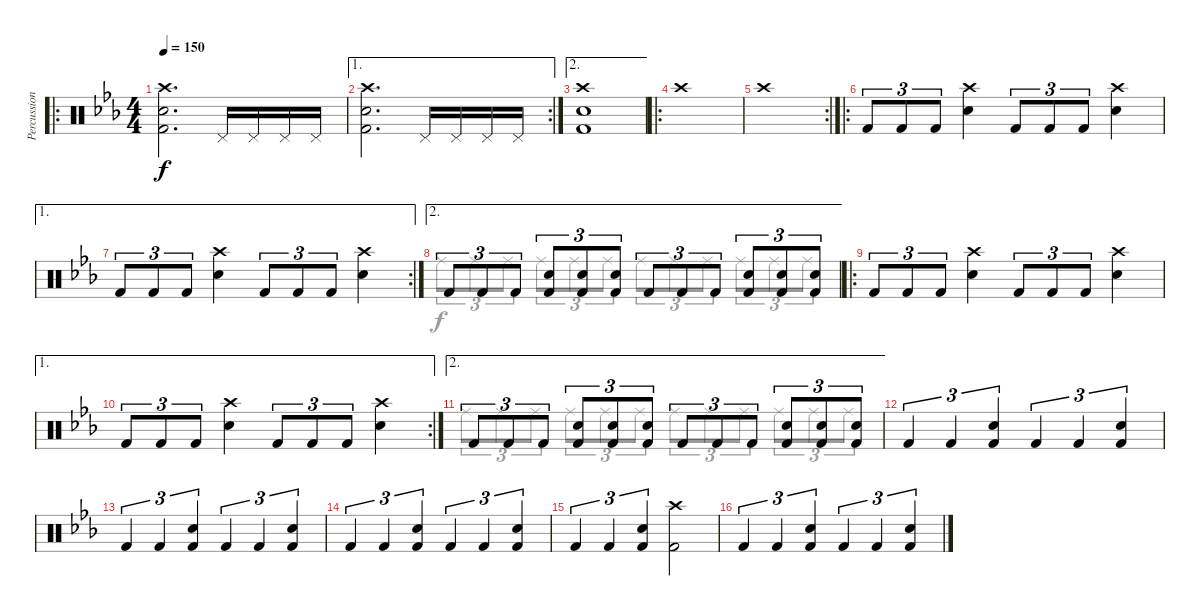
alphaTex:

\track ("Percussion" "Percussion") {instrument percussion}
\staff {score}
\articulation defaults
\voice
\ro
\ts (4 4)
\tempo 150
\clef neutral
\ks cminor
("Crash high (hit)" "Snare (hit) 2" "Kick (hit) 2").2{d dy f} "Pedal Hi-Hat (hit)".16 "Pedal Hi-Hat (hit)".16 "Pedal Hi-Hat (hit)".16 "Pedal Hi-Hat (hit)".16 |
\ae 1
\rc 2
("Crash high (hit)" "Snare (hit) 2" "Kick (hit) 2").2{d} "Pedal Hi-Hat (hit)".16 "Pedal Hi-Hat (hit)".16 "Pedal Hi-Hat (hit)".16 "Pedal Hi-Hat (hit)".16 |
\ae 2
("Crash high (hit)" "Snare (hit) 2" "Kick (hit) 2").1 |
\ro "Crash high (hit)".1
|
\rc 2 "Crash high (hit)".1
|
\ro "Kick (hit) 2".8{tu (3 2)} "Kick (hit) 2".8{tu (3 2)} "Kick (hit) 2".8{tu (3 2)}
("Crash high (hit)" "Snare (hit) 2").4 "Kick (hit) 2".8{tu (3 2)} "Kick (hit) 2".8{tu (3 2)} "Kick (hit) 2".8{tu (3 2)} ("Crash high (hit)" "Snare (hit) 2").4 |
\ae 1
\rc 2 "Kick (hit) 2".8{tu (3 2)} "Kick (hit) 2".8{tu (3 2)} "Kick (hit) 2".8{tu (3 2)}
("Crash high (hit)" "Snare (hit) 2").4 "Kick (hit) 2".8{tu (3 2)} "Kick (hit) 2".8{tu (3 2)} "Kick (hit) 2".8{tu (3 2)} ("Crash high (hit)" "Snare (hit) 2").4 |
\ae 2 "Kick (hit) 2".8{tu (3 2)} "Kick (hit) 2".8{tu (3 2)} "Kick (hit) 2".8{tu (3 2)}
("Snare (hit) 2" "Kick (hit) 2").8{tu (3 2)} ("Snare (hit) 2" "Kick (hit) 2").8{tu (3 2)} ("Snare (hit) 2" "Kick (hit) 2").8{tu (3 2)} "Kick (hit) 2".8{tu (3 2)} "Kick (hit) 2".8{tu (3 2)} "Kick (hit) 2".8{tu (3 2)} ("Snare (hit) 2" "Kick (hit) 2").8{tu (3 2)} ("Snare (hit) 2" "Kick (hit) 2").8{tu (3 2)} ("Snare (hit) 2" "Kick (hit) 2").8{tu (3 2)} |
\ro "Kick (hit) 2".8{tu (3 2)} "Kick (hit) 2".8{tu (3 2)} "Kick (hit) 2".8{tu (3 2)}
("Crash high (hit)" "Snare (hit) 2").4 "Kick (hit) 2".8{tu (3 2)} "Kick (hit) 2".8{tu (3 2)} "Kick (hit) 2".8{tu (3 2)} ("Crash high (hit)" "Snare (hit) 2").4 |
\ae 1
\rc 2 "Kick (hit) 2".8{tu (3 2)} "Kick (hit) 2".8{tu (3 2)} "Kick (hit) 2".8{tu (3 2)}
("Crash high (hit)" "Snare (hit) 2").4 "Kick (hit) 2".8{tu (3 2)} "Kick (hit) 2".8{tu (3 2)} "Kick (hit) 2".8{tu (3 2)} ("Crash high (hit)" "Snare (hit) 2").4 |
\ae 2 "Kick (hit) 2".8{tu (3 2)} "Kick (hit) 2".8{tu (3 2)} "Kick (hit) 2".8{tu (3 2)}
("Snare (hit) 2" "Kick (hit) 2").8{tu (3 2)} ("Snare (hit) 2" "Kick (hit) 2").8{tu (3 2)} ("Snare (hit) 2" "Kick (hit) 2").8{tu (3 2)} "Kick (hit) 2".8{tu (3 2)} "Kick (hit) 2".8{tu (3 2)} "Kick (hit) 2".8{tu (3 2)} ("Snare (hit) 2" "Kick (hit) 2").8{tu (3 2)} ("Snare (hit) 2" "Kick (hit) 2").8{tu (3 2)} ("Snare (hit) 2" "Kick (hit) 2").8{tu (3 2)} |
"Kick (hit) 2".4{tu (3 2)} "Kick (hit) 2".4{tu (3 2)} ("Snare (hit) 2" "Kick (hit) 2").4{tu (3 2)} "Kick (hit) 2".4{tu (3 2)} "Kick (hit) 2".4{tu (3 2)} ("Snare (hit) 2" "Kick (hit) 2").4{tu (3 2)} |
"Kick (hit) 2".4{tu (3 2)} "Kick (hit) 2".4{tu (3 2)} ("Snare (hit) 2" "Kick (hit) 2").4{tu (3 2)} "Kick (hit) 2".4{tu (3 2)} "Kick (hit) 2".4{tu (3 2)} ("Snare (hit) 2" "Kick (hit) 2").4{tu (3 2)} |
"Kick (hit) 2".4{tu (3 2)} "Kick (hit) 2".4{tu (3 2)} ("Snare (hit) 2" "Kick (hit) 2").4{tu (3 2)} "Kick (hit) 2".4{tu (3 2)} "Kick (hit) 2".4{tu (3 2)} ("Snare (hit) 2" "Kick (hit) 2").4{tu (3 2)} |
"Kick (hit) 2".4{tu (3 2)} "Kick (hit) 2".4{tu (3 2)} ("Snare (hit) 2" "Kick (hit) 2").4{tu (3 2)} ("Crash high (hit)" "Kick (hit) 2").2 |
"Kick (hit) 2".4{tu (3 2)} "Kick (hit) 2".4{tu (3 2)} ("Snare (hit) 2" "Kick (hit) 2").4{tu (3 2)} "Kick (hit) 2".4{tu (3 2)} "Kick (hit) 2".4{tu (3 2)} ("Snare (hit) 2" "Kick (hit) 2").4{tu (3 2)}
\voice
\clef neutral
\ottava regular
\simile none
\ks cminor
|
|
|
|
|
|
|
"Ride (middle)".8{tu (3 2)} "Ride (middle)".8{tu (3 2)} "Ride (middle)".8{tu (3 2)} "Ride (middle)".8{tu (3 2)} "Ride (middle)".8{tu (3 2)} "Ride (middle)".8{tu (3 2)} "Ride (middle)".8{tu (3 2)} "Ride (middle)".8{tu (3 2)} "Ride (middle)".8{tu (3 2)} "Ride (middle)".8{tu (3 2)} "Ride (middle)".8{tu (3 2)} "Ride (middle)".8{tu (3 2)} |
|
|
"Ride (middle)".8{tu (3 2)} "Ride (middle)".8{tu (3 2)} "Ride (middle)".8{tu (3 2)} "Ride (middle)".8{tu (3 2)} "Ride (middle)".8{tu (3 2)} "Ride (middle)".8{tu (3 2)} "Ride (middle)".8{tu (3 2)} "Ride (middle)".8{tu (3 2)} "Ride (middle)".8{tu (3 2)} "Ride (middle)".8{tu (3 2)} "Ride (middle)".8{tu (3 2)} "Ride (middle)".8{tu (3 2)} |
|
|
|
|
